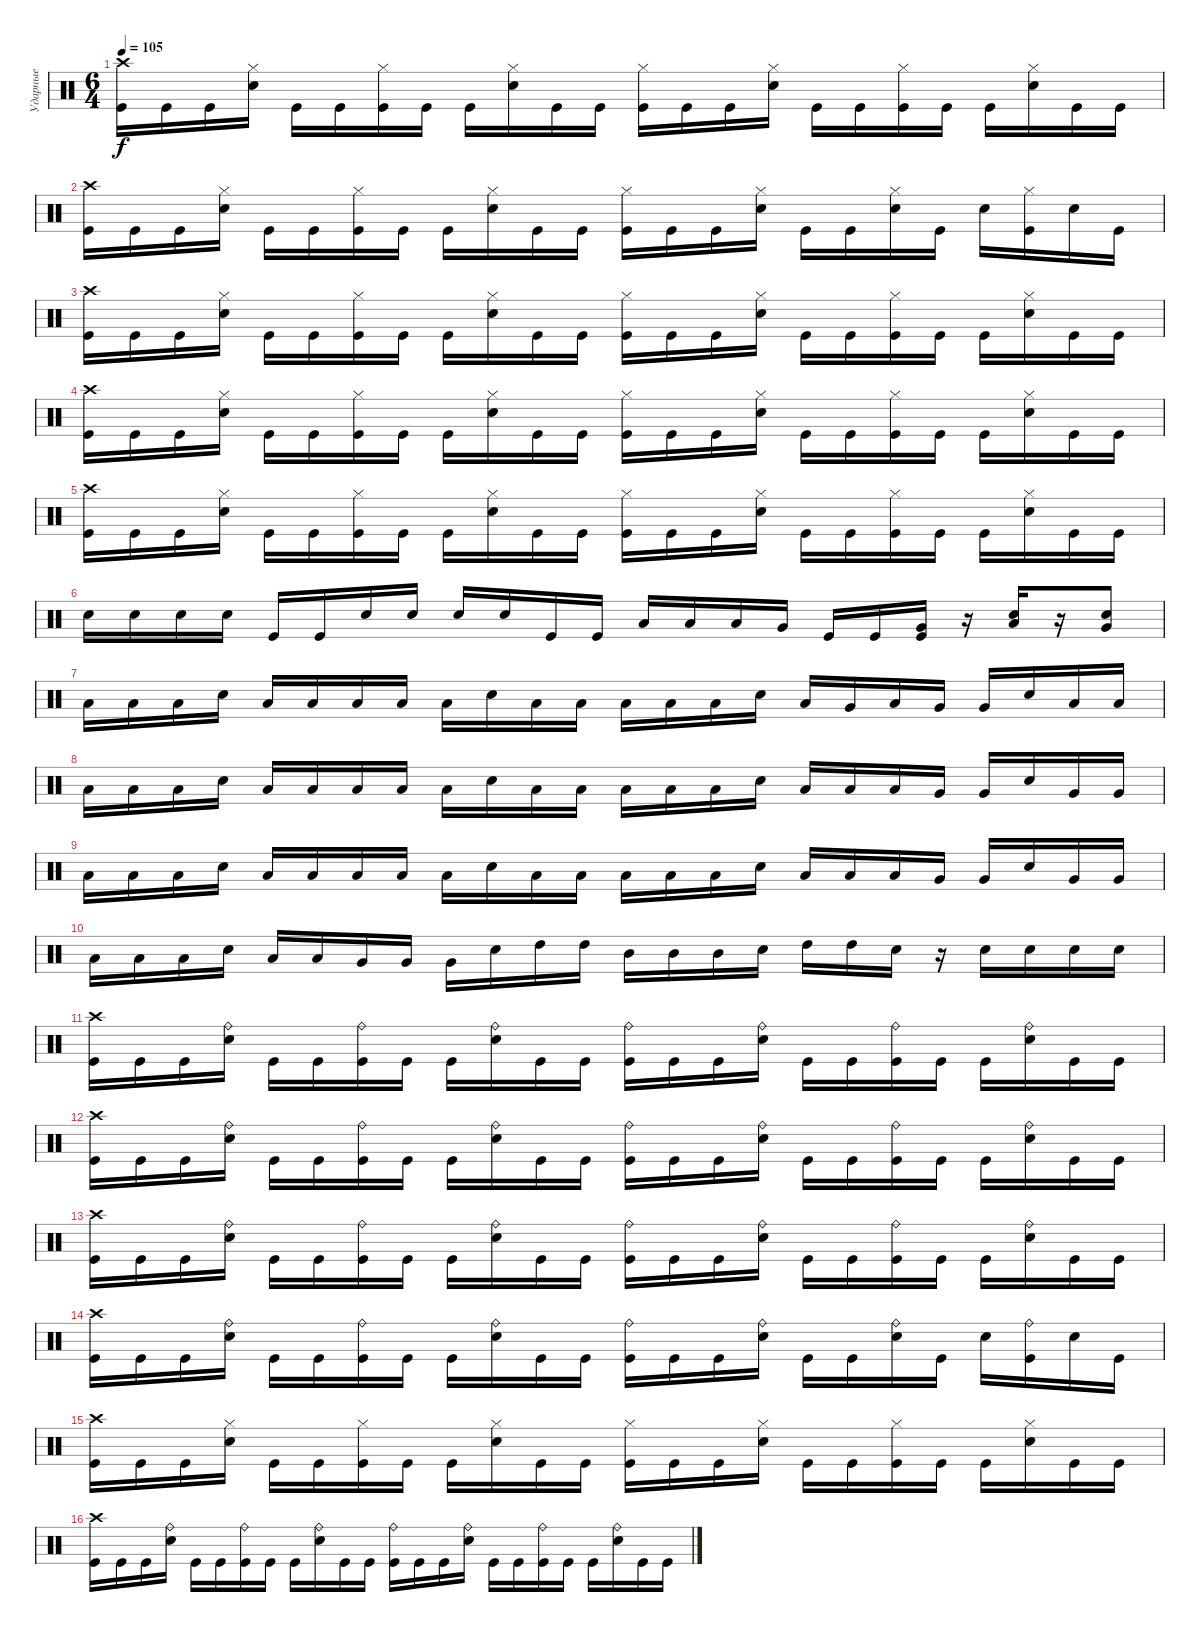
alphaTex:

\track ("Ударные" "Ударные") {instrument percussion}
\staff {score}
\articulation defaults
\ts (6 4)
\tempo 105
\clef neutral
\ks c
("Crash high (hit)" "Kick (hit)").16{dy f} "Kick (hit)".16 "Kick (hit)".16 ("Hi-Hat (closed)" "Electric Snare (hit)").16 "Kick (hit)".16 "Kick (hit)".16 ("Hi-Hat (closed)" "Kick (hit)").16 "Kick (hit)".16 "Kick (hit)".16 ("Hi-Hat (closed)" "Electric Snare (hit)").16 "Kick (hit)".16 "Kick (hit)".16 ("Hi-Hat (closed)" "Kick (hit)").16 "Kick (hit)".16 "Kick (hit)".16 ("Hi-Hat (closed)" "Electric Snare (hit)").16 "Kick (hit)".16 "Kick (hit)".16 ("Hi-Hat (closed)" "Kick (hit)").16 "Kick (hit)".16 "Kick (hit)".16 ("Hi-Hat (closed)" "Electric Snare (hit)").16 "Kick (hit)".16 "Kick (hit)".16 |
("Crash high (hit)" "Kick (hit)").16 "Kick (hit)".16 "Kick (hit)".16 ("Hi-Hat (closed)" "Electric Snare (hit)").16 "Kick (hit)".16 "Kick (hit)".16 ("Hi-Hat (closed)" "Kick (hit)").16 "Kick (hit)".16 "Kick (hit)".16 ("Hi-Hat (closed)" "Electric Snare (hit)").16 "Kick (hit)".16 "Kick (hit)".16 ("Hi-Hat (closed)" "Kick (hit)").16 "Kick (hit)".16 "Kick (hit)".16 ("Hi-Hat (closed)" "Electric Snare (hit)").16 "Kick (hit)".16 "Kick (hit)".16 ("Hi-Hat (closed)" "Electric Snare (hit)").16 "Kick (hit)".16 "Electric Snare (hit)".16 ("Hi-Hat (closed)" "Kick (hit)").16 "Electric Snare (hit)".16 "Kick (hit)".16 |
("Crash high (hit)" "Kick (hit)").16 "Kick (hit)".16 "Kick (hit)".16 ("Hi-Hat (closed)" "Electric Snare (hit)").16 "Kick (hit)".16 "Kick (hit)".16 ("Hi-Hat (closed)" "Kick (hit)").16 "Kick (hit)".16 "Kick (hit)".16 ("Hi-Hat (closed)" "Electric Snare (hit)").16 "Kick (hit)".16 "Kick (hit)".16 ("Hi-Hat (closed)" "Kick (hit)").16 "Kick (hit)".16 "Kick (hit)".16 ("Hi-Hat (closed)" "Electric Snare (hit)").16 "Kick (hit)".16 "Kick (hit)".16 ("Hi-Hat (closed)" "Kick (hit)").16 "Kick (hit)".16 "Kick (hit)".16 ("Hi-Hat (closed)" "Electric Snare (hit)").16 "Kick (hit)".16 "Kick (hit)".16 |
("Crash high (hit)" "Kick (hit)").16 "Kick (hit)".16 "Kick (hit)".16 ("Hi-Hat (closed)" "Electric Snare (hit)").16 "Kick (hit)".16 "Kick (hit)".16 ("Hi-Hat (closed)" "Kick (hit)").16 "Kick (hit)".16 "Kick (hit)".16 ("Hi-Hat (closed)" "Electric Snare (hit)").16 "Kick (hit)".16 "Kick (hit)".16 ("Hi-Hat (closed)" "Kick (hit)").16 "Kick (hit)".16 "Kick (hit)".16 ("Hi-Hat (closed)" "Electric Snare (hit)").16 "Kick (hit)".16 "Kick (hit)".16 ("Hi-Hat (closed)" "Kick (hit)").16 "Kick (hit)".16 "Kick (hit)".16 ("Hi-Hat (closed)" "Electric Snare (hit)").16 "Kick (hit)".16 "Kick (hit)".16 |
("Crash high (hit)" "Kick (hit)").16 "Kick (hit)".16 "Kick (hit)".16 ("Hi-Hat (closed)" "Electric Snare (hit)").16 "Kick (hit)".16 "Kick (hit)".16 ("Hi-Hat (closed)" "Kick (hit)").16 "Kick (hit)".16 "Kick (hit)".16 ("Hi-Hat (closed)" "Electric Snare (hit)").16 "Kick (hit)".16 "Kick (hit)".16 ("Hi-Hat (closed)" "Kick (hit)").16 "Kick (hit)".16 "Kick (hit)".16 ("Hi-Hat (closed)" "Electric Snare (hit)").16 "Kick (hit)".16 "Kick (hit)".16 ("Hi-Hat (closed)" "Kick (hit)").16 "Kick (hit)".16 "Kick (hit)".16 ("Hi-Hat (closed)" "Electric Snare (hit)").16 "Kick (hit)".16 "Kick (hit)".16 |
"Electric Snare (hit)".16 "Electric Snare (hit)".16 "Electric Snare (hit)".16 "Electric Snare (hit)".16 "Kick (hit)".16 "Kick (hit)".16 "Electric Snare (hit)".16 "Electric Snare (hit)".16 "Electric Snare (hit)".16 "Electric Snare (hit)".16 "Kick (hit)".16 "Kick (hit)".16 "Low Tom (hit)".16 "Low Tom (hit)".16 "Low Tom (hit)".16 "Very Low Tom (hit)".16 "Kick (hit)".16 "Kick (hit)".16 ("Kick (hit)" "Very Low Tom (hit)").16 r.16 ("Low Tom (hit)" "Electric Snare (hit)").16 r.16 ("Very Low Tom (hit)" "Electric Snare (hit)").8 |
"Low Tom (hit)".16 "Low Tom (hit)".16 "Low Tom (hit)".16 "Electric Snare (hit)".16 "Low Tom (hit)".16 "Low Tom (hit)".16 "Low Tom (hit)".16 "Low Tom (hit)".16 "Low Tom (hit)".16 "Electric Snare (hit)".16 "Low Tom (hit)".16 "Low Tom (hit)".16 "Low Tom (hit)".16 "Low Tom (hit)".16 "Low Tom (hit)".16 "Electric Snare (hit)".16 "Low Tom (hit)".16 "Very Low Tom (hit)".16 "Low Tom (hit)".16 "Very Low Tom (hit)".16 "Very Low Tom (hit)".16 "Electric Snare (hit)".16 "Low Tom (hit)".16 "Low Tom (hit)".16 |
"Low Tom (hit)".16 "Low Tom (hit)".16 "Low Tom (hit)".16 "Electric Snare (hit)".16 "Low Tom (hit)".16 "Low Tom (hit)".16 "Low Tom (hit)".16 "Low Tom (hit)".16 "Low Tom (hit)".16 "Electric Snare (hit)".16 "Low Tom (hit)".16 "Low Tom (hit)".16 "Low Tom (hit)".16 "Low Tom (hit)".16 "Low Tom (hit)".16 "Electric Snare (hit)".16 "Low Tom (hit)".16 "Low Tom (hit)".16 "Low Tom (hit)".16 "Very Low Tom (hit)".16 "Very Low Tom (hit)".16 "Electric Snare (hit)".16 "Very Low Tom (hit)".16 "Very Low Tom (hit)".16 |
"Low Tom (hit)".16 "Low Tom (hit)".16 "Low Tom (hit)".16 "Electric Snare (hit)".16 "Low Tom (hit)".16 "Low Tom (hit)".16 "Low Tom (hit)".16 "Low Tom (hit)".16 "Low Tom (hit)".16 "Electric Snare (hit)".16 "Low Tom (hit)".16 "Low Tom (hit)".16 "Low Tom (hit)".16 "Low Tom (hit)".16 "Low Tom (hit)".16 "Electric Snare (hit)".16 "Low Tom (hit)".16 "Low Tom (hit)".16 "Low Tom (hit)".16 "Very Low Tom (hit)".16 "Very Low Tom (hit)".16 "Electric Snare (hit)".16 "Very Low Tom (hit)".16 "Very Low Tom (hit)".16 |
"Low Tom (hit)".16 "Low Tom (hit)".16 "Low Tom (hit)".16 "Electric Snare (hit)".16 "Low Tom (hit)".16 "Low Tom (hit)".16 "Very Low Tom (hit)".16 "Very Low Tom (hit)".16 "Very Low Tom (hit)".16 "Electric Snare (hit)".16 "High Tom (hit)".16 "High Tom (hit)".16 "Mid Tom (hit)".16 "Mid Tom (hit)".16 "Mid Tom (hit)".16 "Electric Snare (hit)".16 "High Tom (hit)".16 "High Tom (hit)".16 "Electric Snare (hit)".16 r.16 "Electric Snare (hit)".16 "Electric Snare (hit)".16 "Electric Snare (hit)".16 "Electric Snare (hit)".16 |
("Crash high (hit)" "Kick (hit)").16 "Kick (hit)".16 "Kick (hit)".16 ("Ride (bell)" "Electric Snare (hit)").16 "Kick (hit)".16 "Kick (hit)".16 ("Ride (bell)" "Kick (hit)").16 "Kick (hit)".16 "Kick (hit)".16 ("Ride (bell)" "Electric Snare (hit)").16 "Kick (hit)".16 "Kick (hit)".16 ("Ride (bell)" "Kick (hit)").16 "Kick (hit)".16 "Kick (hit)".16 ("Ride (bell)" "Electric Snare (hit)").16 "Kick (hit)".16 "Kick (hit)".16 ("Ride (bell)" "Kick (hit)").16 "Kick (hit)".16 "Kick (hit)".16 ("Ride (bell)" "Electric Snare (hit)").16 "Kick (hit)".16 "Kick (hit)".16 |
("Crash high (hit)" "Kick (hit)").16 "Kick (hit)".16 "Kick (hit)".16 ("Ride (bell)" "Electric Snare (hit)").16 "Kick (hit)".16 "Kick (hit)".16 ("Ride (bell)" "Kick (hit)").16 "Kick (hit)".16 "Kick (hit)".16 ("Ride (bell)" "Electric Snare (hit)").16 "Kick (hit)".16 "Kick (hit)".16 ("Ride (bell)" "Kick (hit)").16 "Kick (hit)".16 "Kick (hit)".16 ("Ride (bell)" "Electric Snare (hit)").16 "Kick (hit)".16 "Kick (hit)".16 ("Ride (bell)" "Kick (hit)").16 "Kick (hit)".16 "Kick (hit)".16 ("Ride (bell)" "Electric Snare (hit)").16 "Kick (hit)".16 "Kick (hit)".16 |
("Crash high (hit)" "Kick (hit)").16 "Kick (hit)".16 "Kick (hit)".16 ("Ride (bell)" "Electric Snare (hit)").16 "Kick (hit)".16 "Kick (hit)".16 ("Ride (bell)" "Kick (hit)").16 "Kick (hit)".16 "Kick (hit)".16 ("Ride (bell)" "Electric Snare (hit)").16 "Kick (hit)".16 "Kick (hit)".16 ("Ride (bell)" "Kick (hit)").16 "Kick (hit)".16 "Kick (hit)".16 ("Ride (bell)" "Electric Snare (hit)").16 "Kick (hit)".16 "Kick (hit)".16 ("Ride (bell)" "Kick (hit)").16 "Kick (hit)".16 "Kick (hit)".16 ("Ride (bell)" "Electric Snare (hit)").16 "Kick (hit)".16 "Kick (hit)".16 |
("Crash high (hit)" "Kick (hit)").16 "Kick (hit)".16 "Kick (hit)".16 ("Ride (bell)" "Electric Snare (hit)").16 "Kick (hit)".16 "Kick (hit)".16 ("Ride (bell)" "Kick (hit)").16 "Kick (hit)".16 "Kick (hit)".16 ("Ride (bell)" "Electric Snare (hit)").16 "Kick (hit)".16 "Kick (hit)".16 ("Ride (bell)" "Kick (hit)").16 "Kick (hit)".16 "Kick (hit)".16 ("Ride (bell)" "Electric Snare (hit)").16 "Kick (hit)".16 "Kick (hit)".16 ("Ride (bell)" "Electric Snare (hit)").16 "Kick (hit)".16 "Electric Snare (hit)".16 ("Ride (bell)" "Kick (hit)").16 "Electric Snare (hit)".16 "Kick (hit)".16 |
("Crash high (hit)" "Kick (hit)").16 "Kick (hit)".16 "Kick (hit)".16 ("Hi-Hat (closed)" "Electric Snare (hit)").16 "Kick (hit)".16 "Kick (hit)".16 ("Hi-Hat (closed)" "Kick (hit)").16 "Kick (hit)".16 "Kick (hit)".16 ("Hi-Hat (closed)" "Electric Snare (hit)").16 "Kick (hit)".16 "Kick (hit)".16 ("Hi-Hat (closed)" "Kick (hit)").16 "Kick (hit)".16 "Kick (hit)".16 ("Hi-Hat (closed)" "Electric Snare (hit)").16 "Kick (hit)".16 "Kick (hit)".16 ("Hi-Hat (closed)" "Kick (hit)").16 "Kick (hit)".16 "Kick (hit)".16 ("Hi-Hat (closed)" "Electric Snare (hit)").16 "Kick (hit)".16 "Kick (hit)".16 |
("Crash high (hit)" "Kick (hit)").16 "Kick (hit)".16 "Kick (hit)".16 ("Ride (bell)" "Electric Snare (hit)").16 "Kick (hit)".16 "Kick (hit)".16 ("Ride (bell)" "Kick (hit)").16 "Kick (hit)".16 "Kick (hit)".16 ("Ride (bell)" "Electric Snare (hit)").16 "Kick (hit)".16 "Kick (hit)".16 ("Ride (bell)" "Kick (hit)").16 "Kick (hit)".16 "Kick (hit)".16 ("Ride (bell)" "Electric Snare (hit)").16 "Kick (hit)".16 "Kick (hit)".16 ("Ride (bell)" "Kick (hit)").16 "Kick (hit)".16 "Kick (hit)".16 ("Ride (bell)" "Electric Snare (hit)").16 "Kick (hit)".16 "Kick (hit)".16
